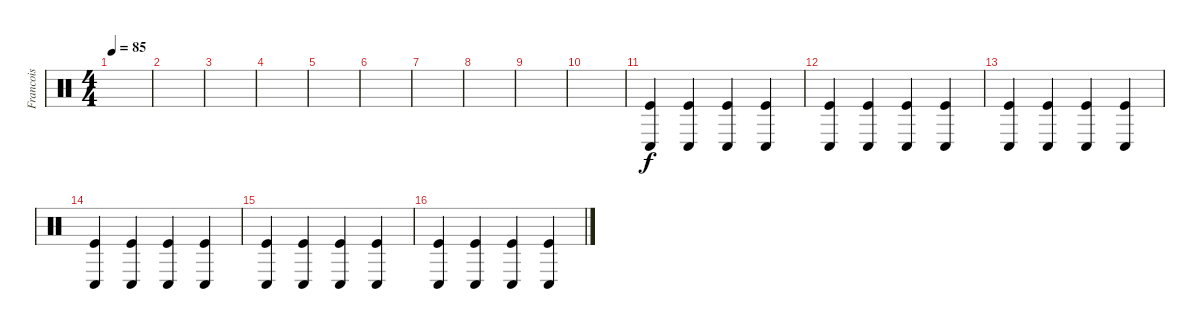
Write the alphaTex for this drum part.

\track ("Francois" "Francois") {instrument percussion}
\staff {score}
\articulation defaults
\ts (4 4)
\tempo 85
\clef neutral
\ks c
|
|
|
|
|
|
|
|
|
|
("Kick (hit)" "Conga low (hit)").4 ("Kick (hit)" "Conga low (hit)").4 ("Kick (hit)" "Conga low (hit)").4 ("Kick (hit)" "Conga low (hit)").4 |
("Kick (hit)" "Conga low (hit)").4 ("Kick (hit)" "Conga low (hit)").4 ("Kick (hit)" "Conga low (hit)").4 ("Kick (hit)" "Conga low (hit)").4 |
("Kick (hit)" "Conga low (hit)").4 ("Kick (hit)" "Conga low (hit)").4 ("Kick (hit)" "Conga low (hit)").4 ("Kick (hit)" "Conga low (hit)").4 |
("Kick (hit)" "Conga low (hit)").4 ("Kick (hit)" "Conga low (hit)").4 ("Kick (hit)" "Conga low (hit)").4 ("Kick (hit)" "Conga low (hit)").4 |
("Kick (hit)" "Conga low (hit)").4 ("Kick (hit)" "Conga low (hit)").4 ("Kick (hit)" "Conga low (hit)").4 ("Kick (hit)" "Conga low (hit)").4 |
("Kick (hit)" "Conga low (hit)").4 ("Kick (hit)" "Conga low (hit)").4 ("Kick (hit)" "Conga low (hit)").4 ("Kick (hit)" "Conga low (hit)").4
